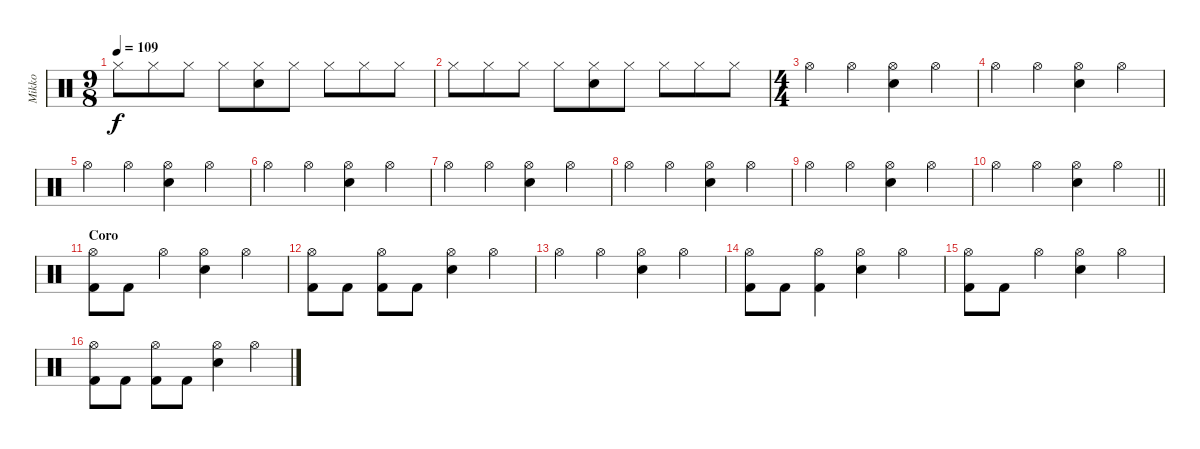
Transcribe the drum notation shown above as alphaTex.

\track ("Mikko" "Mikko") {instrument percussion}
\staff {score}
\articulation defaults
\ts (9 8)
\tempo 109
\clef neutral
\ks c "Hi-Hat (closed)".8{dy f} "Hi-Hat (closed)".8 "Hi-Hat (closed)".8 "Hi-Hat (closed)".8
("Hi-Hat (closed)" "Snare (hit) 2").8 "Hi-Hat (closed)".8 "Hi-Hat (closed)".8 "Hi-Hat (closed)".8 "Hi-Hat (closed)".8 |
"Hi-Hat (closed)".8 "Hi-Hat (closed)".8 "Hi-Hat (closed)".8 "Hi-Hat (closed)".8 ("Hi-Hat (closed)" "Snare (hit) 2").8 "Hi-Hat (closed)".8 "Hi-Hat (closed)".8 "Hi-Hat (closed)".8 "Hi-Hat (closed)".8 |
\ts (4 4)
"Hi-Hat (open)".4 "Hi-Hat (open)".4 ("Hi-Hat (open)" "Snare (hit) 2").4 "Hi-Hat (open)".4 |
"Hi-Hat (open)".4 "Hi-Hat (open)".4 ("Hi-Hat (open)" "Snare (hit) 2").4 "Hi-Hat (open)".4 |
"Hi-Hat (open)".4 "Hi-Hat (open)".4 ("Hi-Hat (open)" "Snare (hit) 2").4 "Hi-Hat (open)".4 |
"Hi-Hat (open)".4 "Hi-Hat (open)".4 ("Hi-Hat (open)" "Snare (hit) 2").4 "Hi-Hat (open)".4 |
"Hi-Hat (open)".4 "Hi-Hat (open)".4 ("Hi-Hat (open)" "Snare (hit) 2").4 "Hi-Hat (open)".4 |
"Hi-Hat (open)".4 "Hi-Hat (open)".4 ("Hi-Hat (open)" "Snare (hit) 2").4 "Hi-Hat (open)".4 |
"Hi-Hat (open)".4 "Hi-Hat (open)".4 ("Hi-Hat (open)" "Snare (hit) 2").4 "Hi-Hat (open)".4 |
\barLineRight lightlight "Hi-Hat (open)".4 "Hi-Hat (open)".4
("Hi-Hat (open)" "Snare (hit) 2").4 "Hi-Hat (open)".4 |
\section ("" "Coro")
("Hi-Hat (open)" "Kick (hit) 2").8 "Kick (hit) 2".8 "Hi-Hat (open)".4 ("Hi-Hat (open)" "Snare (hit) 2").4 "Hi-Hat (open)".4 |
("Hi-Hat (open)" "Kick (hit) 2").8 "Kick (hit) 2".8 ("Hi-Hat (open)" "Kick (hit) 2").8 "Kick (hit) 2".8 ("Hi-Hat (open)" "Snare (hit) 2").4 "Hi-Hat (open)".4 |
"Hi-Hat (open)".4 "Hi-Hat (open)".4 ("Hi-Hat (open)" "Snare (hit) 2").4 "Hi-Hat (open)".4 |
("Hi-Hat (open)" "Kick (hit) 2").8 "Kick (hit) 2".8 ("Hi-Hat (open)" "Kick (hit) 2").4 ("Hi-Hat (open)" "Snare (hit) 2").4 "Hi-Hat (open)".4 |
("Hi-Hat (open)" "Kick (hit) 2").8 "Kick (hit) 2".8 "Hi-Hat (open)".4 ("Hi-Hat (open)" "Snare (hit) 2").4 "Hi-Hat (open)".4 |
("Hi-Hat (open)" "Kick (hit) 2").8 "Kick (hit) 2".8 ("Hi-Hat (open)" "Kick (hit) 2").8 "Kick (hit) 2".8 ("Hi-Hat (open)" "Snare (hit) 2").4 "Hi-Hat (open)".4
